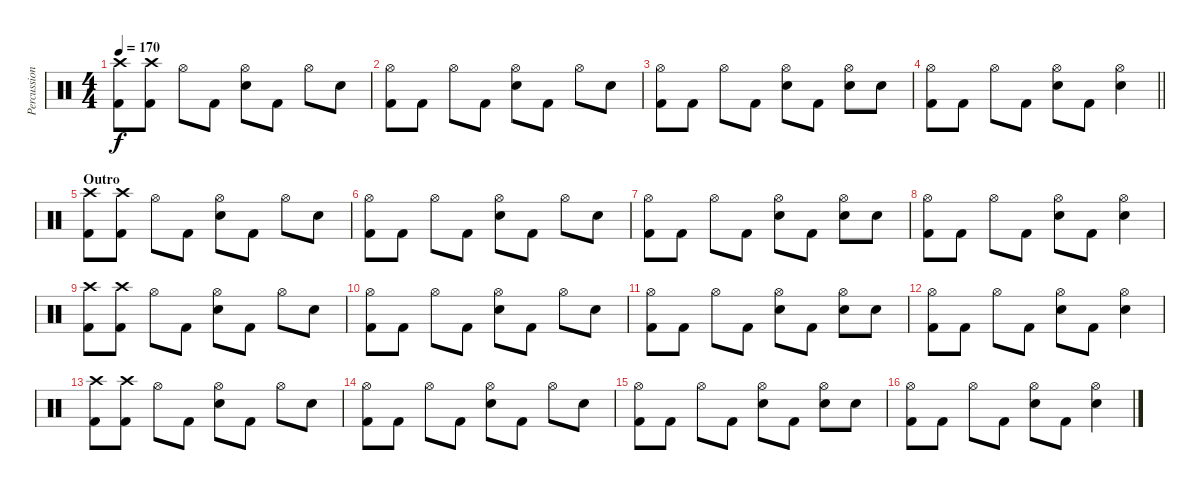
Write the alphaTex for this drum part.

\track ("Percussion" "Percussion") {instrument percussion}
\staff {score}
\articulation defaults
\ts (4 4)
\tempo 170
\clef neutral
\ks c
("Crash high (hit)" "Kick (hit) 2").8{dy f} ("Crash high (hit)" "Kick (hit) 2").8 "Hi-Hat (open)".8 "Kick (hit) 2".8 ("Hi-Hat (open)" "Electric Snare (hit)").8 "Kick (hit) 2".8 "Hi-Hat (open)".8 "Electric Snare (hit)".8 |
("Hi-Hat (open)" "Kick (hit) 2").8 "Kick (hit) 2".8 "Hi-Hat (open)".8 "Kick (hit) 2".8 ("Hi-Hat (open)" "Electric Snare (hit)").8 "Kick (hit) 2".8 "Hi-Hat (open)".8 "Electric Snare (hit)".8 |
("Hi-Hat (open)" "Kick (hit) 2").8 "Kick (hit) 2".8 "Hi-Hat (open)".8 "Kick (hit) 2".8 ("Hi-Hat (open)" "Electric Snare (hit)").8 "Kick (hit) 2".8 ("Hi-Hat (open)" "Electric Snare (hit)").8 "Electric Snare (hit)".8 |
\barLineRight lightlight
("Hi-Hat (open)" "Kick (hit) 2").8 "Kick (hit) 2".8 "Hi-Hat (open)".8 "Kick (hit) 2".8 ("Hi-Hat (open)" "Electric Snare (hit)").8 "Kick (hit) 2".8 ("Hi-Hat (open)" "Electric Snare (hit)").4 |
\section ("" "Outro")
("Crash high (hit)" "Kick (hit) 2").8 ("Crash high (hit)" "Kick (hit) 2").8 "Hi-Hat (open)".8 "Kick (hit) 2".8 ("Hi-Hat (open)" "Electric Snare (hit)").8 "Kick (hit) 2".8 "Hi-Hat (open)".8 "Electric Snare (hit)".8 |
("Hi-Hat (open)" "Kick (hit) 2").8 "Kick (hit) 2".8 "Hi-Hat (open)".8 "Kick (hit) 2".8 ("Hi-Hat (open)" "Electric Snare (hit)").8 "Kick (hit) 2".8 "Hi-Hat (open)".8 "Electric Snare (hit)".8 |
("Hi-Hat (open)" "Kick (hit) 2").8 "Kick (hit) 2".8 "Hi-Hat (open)".8 "Kick (hit) 2".8 ("Hi-Hat (open)" "Electric Snare (hit)").8 "Kick (hit) 2".8 ("Hi-Hat (open)" "Electric Snare (hit)").8 "Electric Snare (hit)".8 |
("Hi-Hat (open)" "Kick (hit) 2").8 "Kick (hit) 2".8 "Hi-Hat (open)".8 "Kick (hit) 2".8 ("Hi-Hat (open)" "Electric Snare (hit)").8 "Kick (hit) 2".8 ("Hi-Hat (open)" "Electric Snare (hit)").4 |
("Crash high (hit)" "Kick (hit) 2").8 ("Crash high (hit)" "Kick (hit) 2").8 "Hi-Hat (open)".8 "Kick (hit) 2".8 ("Hi-Hat (open)" "Electric Snare (hit)").8 "Kick (hit) 2".8 "Hi-Hat (open)".8 "Electric Snare (hit)".8 |
("Hi-Hat (open)" "Kick (hit) 2").8 "Kick (hit) 2".8 "Hi-Hat (open)".8 "Kick (hit) 2".8 ("Hi-Hat (open)" "Electric Snare (hit)").8 "Kick (hit) 2".8 "Hi-Hat (open)".8 "Electric Snare (hit)".8 |
("Hi-Hat (open)" "Kick (hit) 2").8 "Kick (hit) 2".8 "Hi-Hat (open)".8 "Kick (hit) 2".8 ("Hi-Hat (open)" "Electric Snare (hit)").8 "Kick (hit) 2".8 ("Hi-Hat (open)" "Electric Snare (hit)").8 "Electric Snare (hit)".8 |
("Hi-Hat (open)" "Kick (hit) 2").8 "Kick (hit) 2".8 "Hi-Hat (open)".8 "Kick (hit) 2".8 ("Hi-Hat (open)" "Electric Snare (hit)").8 "Kick (hit) 2".8 ("Hi-Hat (open)" "Electric Snare (hit)").4 |
("Crash high (hit)" "Kick (hit) 2").8 ("Crash high (hit)" "Kick (hit) 2").8 "Hi-Hat (open)".8 "Kick (hit) 2".8 ("Hi-Hat (open)" "Electric Snare (hit)").8 "Kick (hit) 2".8 "Hi-Hat (open)".8 "Electric Snare (hit)".8 |
("Hi-Hat (open)" "Kick (hit) 2").8 "Kick (hit) 2".8 "Hi-Hat (open)".8 "Kick (hit) 2".8 ("Hi-Hat (open)" "Electric Snare (hit)").8 "Kick (hit) 2".8 "Hi-Hat (open)".8 "Electric Snare (hit)".8 |
("Hi-Hat (open)" "Kick (hit) 2").8 "Kick (hit) 2".8 "Hi-Hat (open)".8 "Kick (hit) 2".8 ("Hi-Hat (open)" "Electric Snare (hit)").8 "Kick (hit) 2".8 ("Hi-Hat (open)" "Electric Snare (hit)").8 "Electric Snare (hit)".8 |
("Hi-Hat (open)" "Kick (hit) 2").8 "Kick (hit) 2".8 "Hi-Hat (open)".8 "Kick (hit) 2".8 ("Hi-Hat (open)" "Electric Snare (hit)").8 "Kick (hit) 2".8 ("Hi-Hat (open)" "Electric Snare (hit)").4
